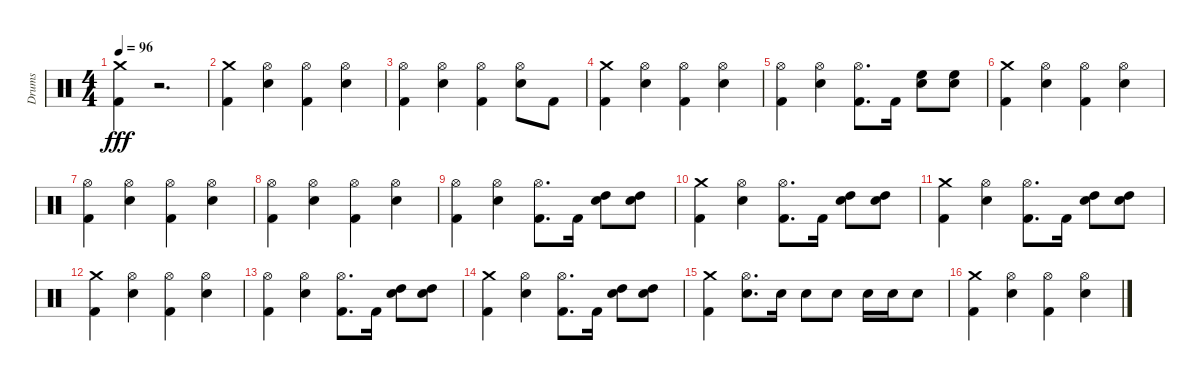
\track ("Drums" "Drums") {instrument percussion}
\staff {score}
\articulation defaults
\ts (4 4)
\tempo 96
\clef neutral
\ks c
("Kick (hit) 2" "Crash medium (hit)").4{dy fff} r.2{d} |
("Kick (hit) 2" "Crash medium (hit)").4 ("Hi-Hat (open)" "Snare (hit) 2").4 ("Hi-Hat (open)" "Kick (hit) 2").4 ("Hi-Hat (open)" "Snare (hit) 2").4 |
("Hi-Hat (open)" "Kick (hit) 2").4 ("Hi-Hat (open)" "Snare (hit) 2").4 ("Hi-Hat (open)" "Kick (hit) 2").4 ("Hi-Hat (open)" "Snare (hit) 2").8 "Kick (hit) 2".8 |
("Kick (hit) 2" "Crash medium (hit)").4 ("Hi-Hat (open)" "Snare (hit) 2").4 ("Hi-Hat (open)" "Kick (hit) 2").4 ("Hi-Hat (open)" "Snare (hit) 2").4 |
("Hi-Hat (open)" "Kick (hit) 2").4 ("Hi-Hat (open)" "Snare (hit) 2").4 ("Hi-Hat (open)" "Kick (hit) 2").8{d} "Kick (hit) 2".16 ("High Floor Tom (hit)" "Snare (hit) 2").8 ("High Floor Tom (hit)" "Snare (hit) 2").8 |
("Kick (hit) 2" "Crash medium (hit)").4 ("Hi-Hat (open)" "Snare (hit) 2").4 ("Hi-Hat (open)" "Kick (hit) 2").4 ("Hi-Hat (open)" "Snare (hit) 2").4 |
("Hi-Hat (open)" "Kick (hit) 2").4 ("Hi-Hat (open)" "Snare (hit) 2").4 ("Hi-Hat (open)" "Kick (hit) 2").4 ("Hi-Hat (open)" "Snare (hit) 2").4 |
("Hi-Hat (open)" "Kick (hit) 2").4 ("Hi-Hat (open)" "Snare (hit) 2").4 ("Hi-Hat (open)" "Kick (hit) 2").4 ("Hi-Hat (open)" "Snare (hit) 2").4 |
("Hi-Hat (open)" "Kick (hit) 2").4 ("Hi-Hat (open)" "Snare (hit) 2").4 ("Hi-Hat (open)" "Kick (hit) 2").8{d} "Kick (hit) 2".16 ("High Tom (hit)" "Snare (hit) 2").8 ("High Tom (hit)" "Snare (hit) 2").8 |
("Kick (hit) 2" "Crash medium (hit)").4 ("Hi-Hat (open)" "Snare (hit) 2").4 ("Hi-Hat (open)" "Kick (hit) 2").8{d} "Kick (hit) 2".16 ("High Tom (hit)" "Snare (hit) 2").8 ("High Tom (hit)" "Snare (hit) 2").8 |
("Kick (hit) 2" "Crash medium (hit)").4 ("Hi-Hat (open)" "Snare (hit) 2").4 ("Hi-Hat (open)" "Kick (hit) 2").8{d} "Kick (hit) 2".16 ("High Tom (hit)" "Snare (hit) 2").8 ("High Tom (hit)" "Snare (hit) 2").8 |
("Kick (hit) 2" "Crash medium (hit)").4 ("Hi-Hat (open)" "Snare (hit) 2").4 ("Hi-Hat (open)" "Kick (hit) 2").4 ("Hi-Hat (open)" "Snare (hit) 2").4 |
("Kick (hit) 2" "Hi-Hat (open)").4 ("Hi-Hat (open)" "Snare (hit) 2").4 ("Hi-Hat (open)" "Kick (hit) 2").8{d} "Kick (hit) 2".16 ("High Tom (hit)" "Snare (hit) 2").8 ("High Tom (hit)" "Snare (hit) 2").8 |
("Kick (hit) 2" "Crash medium (hit)").4 ("Hi-Hat (open)" "Snare (hit) 2").4 ("Hi-Hat (open)" "Kick (hit) 2").8{d} "Kick (hit) 2".16 ("High Tom (hit)" "Snare (hit) 2").8 ("High Tom (hit)" "Snare (hit) 2").8 |
("Kick (hit) 2" "Crash medium (hit)").4 ("Hi-Hat (open)" "Snare (hit) 2").8{d} "Snare (hit) 2".16 "Snare (hit) 2".8 "Snare (hit) 2".8 "Snare (hit) 2".16 "Snare (hit) 2".16 "Snare (hit) 2".8 |
("Kick (hit) 2" "Crash medium (hit)").4 ("Hi-Hat (open)" "Snare (hit) 2").4 ("Hi-Hat (open)" "Kick (hit) 2").4 ("Hi-Hat (open)" "Snare (hit) 2").4
